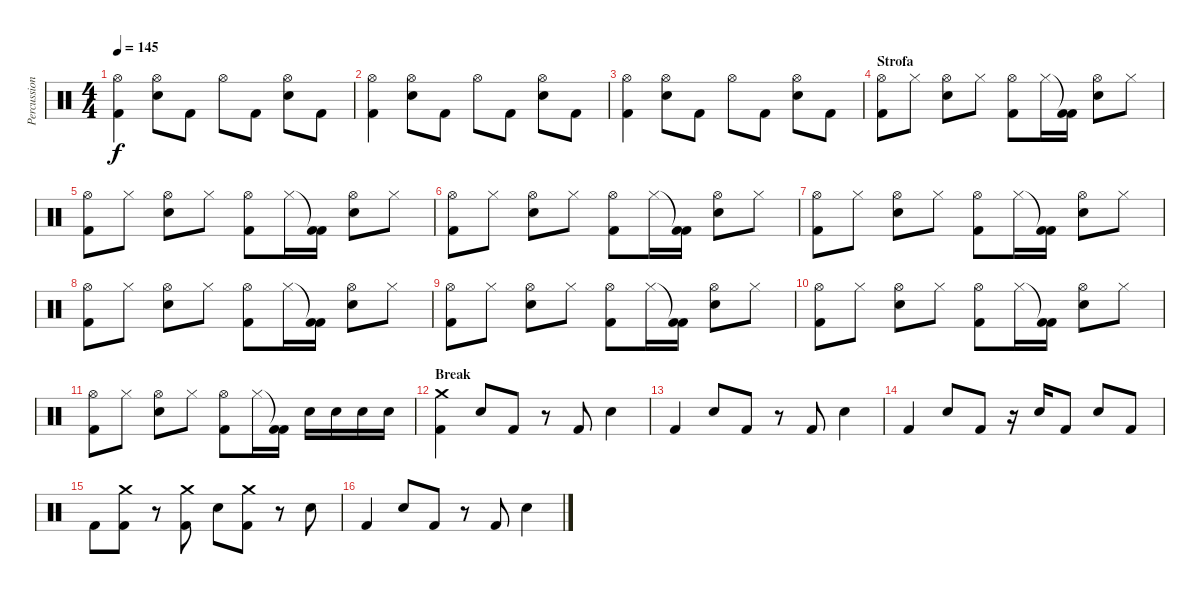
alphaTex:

\track ("Percussioni" "Percussion") {instrument percussion}
\staff {score}
\articulation defaults
\ts (4 4)
\tempo 145
\clef neutral
\ks c
("Hi-Hat (open)" "Kick (hit) 2").4{dy f} ("Hi-Hat (open)" "Electric Snare (hit)").8 "Kick (hit) 2".8 "Hi-Hat (open)".8 "Kick (hit) 2".8 ("Hi-Hat (open)" "Electric Snare (hit)").8 "Kick (hit) 2".8 |
("Hi-Hat (open)" "Kick (hit) 2").4 ("Hi-Hat (open)" "Electric Snare (hit)").8 "Kick (hit) 2".8 "Hi-Hat (open)".8 "Kick (hit) 2".8 ("Hi-Hat (open)" "Electric Snare (hit)").8 "Kick (hit) 2".8 |
("Hi-Hat (open)" "Kick (hit) 2").4 ("Hi-Hat (open)" "Electric Snare (hit)").8 "Kick (hit) 2".8 "Hi-Hat (open)".8 "Kick (hit) 2".8 ("Hi-Hat (open)" "Electric Snare (hit)").8 "Kick (hit) 2".8 |
\section ("" "Strofa")
("Hi-Hat (open)" "Kick (hit) 2").8 "Hi-Hat (closed)".8 ("Hi-Hat (open)" "Electric Snare (hit)").8 "Hi-Hat (closed)".8 ("Hi-Hat (open)" "Kick (hit) 2").8 "Hi-Hat (closed)".16 ("Kick (hit) 2"{t} "Kick (hit) 2").16 ("Hi-Hat (open)" "Electric Snare (hit)").8 "Hi-Hat (closed)".8 |
("Hi-Hat (open)" "Kick (hit) 2").8 "Hi-Hat (closed)".8 ("Hi-Hat (open)" "Electric Snare (hit)").8 "Hi-Hat (closed)".8 ("Hi-Hat (open)" "Kick (hit) 2").8 "Hi-Hat (closed)".16 ("Kick (hit) 2"{t} "Kick (hit) 2").16 ("Hi-Hat (open)" "Electric Snare (hit)").8 "Hi-Hat (closed)".8 |
("Hi-Hat (open)" "Kick (hit) 2").8 "Hi-Hat (closed)".8 ("Hi-Hat (open)" "Electric Snare (hit)").8 "Hi-Hat (closed)".8 ("Hi-Hat (open)" "Kick (hit) 2").8 "Hi-Hat (closed)".16 ("Kick (hit) 2"{t} "Kick (hit) 2").16 ("Hi-Hat (open)" "Electric Snare (hit)").8 "Hi-Hat (closed)".8 |
("Hi-Hat (open)" "Kick (hit) 2").8 "Hi-Hat (closed)".8 ("Hi-Hat (open)" "Electric Snare (hit)").8 "Hi-Hat (closed)".8 ("Hi-Hat (open)" "Kick (hit) 2").8 "Hi-Hat (closed)".16 ("Kick (hit) 2"{t} "Kick (hit) 2").16 ("Hi-Hat (open)" "Electric Snare (hit)").8 "Hi-Hat (closed)".8 |
("Hi-Hat (open)" "Kick (hit) 2").8 "Hi-Hat (closed)".8 ("Hi-Hat (open)" "Electric Snare (hit)").8 "Hi-Hat (closed)".8 ("Hi-Hat (open)" "Kick (hit) 2").8 "Hi-Hat (closed)".16 ("Kick (hit) 2"{t} "Kick (hit) 2").16 ("Hi-Hat (open)" "Electric Snare (hit)").8 "Hi-Hat (closed)".8 |
("Hi-Hat (open)" "Kick (hit) 2").8 "Hi-Hat (closed)".8 ("Hi-Hat (open)" "Electric Snare (hit)").8 "Hi-Hat (closed)".8 ("Hi-Hat (open)" "Kick (hit) 2").8 "Hi-Hat (closed)".16 ("Kick (hit) 2"{t} "Kick (hit) 2").16 ("Hi-Hat (open)" "Electric Snare (hit)").8 "Hi-Hat (closed)".8 |
("Hi-Hat (open)" "Kick (hit) 2").8 "Hi-Hat (closed)".8 ("Hi-Hat (open)" "Electric Snare (hit)").8 "Hi-Hat (closed)".8 ("Hi-Hat (open)" "Kick (hit) 2").8 "Hi-Hat (closed)".16 ("Kick (hit) 2"{t} "Kick (hit) 2").16 ("Hi-Hat (open)" "Electric Snare (hit)").8 "Hi-Hat (closed)".8 |
("Hi-Hat (open)" "Kick (hit) 2").8 "Hi-Hat (closed)".8 ("Hi-Hat (open)" "Electric Snare (hit)").8 "Hi-Hat (closed)".8 ("Hi-Hat (open)" "Kick (hit) 2").8 "Hi-Hat (closed)".16 ("Kick (hit) 2"{t} "Kick (hit) 2").16 "Electric Snare (hit)".16 "Electric Snare (hit)".16 "Electric Snare (hit)".16 "Electric Snare (hit)".16 |
\section ("" "Break")
("Crash medium (hit)" "Kick (hit) 2").4 "Electric Snare (hit)".8 "Kick (hit) 2".8 r.8 "Kick (hit) 2".8 "Electric Snare (hit)".4 |
"Kick (hit) 2".4 "Electric Snare (hit)".8 "Kick (hit) 2".8 r.8 "Kick (hit) 2".8 "Electric Snare (hit)".4 |
"Kick (hit) 2".4 "Electric Snare (hit)".8 "Kick (hit) 2".8 r.16 "Electric Snare (hit)".16 "Kick (hit) 2".8 "Electric Snare (hit)".8 "Kick (hit) 2".8 |
"Kick (hit) 2".8 ("Crash medium (hit)" "Kick (hit) 2").8 r.8 ("Crash medium (hit)" "Kick (hit) 2").8 "Electric Snare (hit)".8 ("Crash medium (hit)" "Kick (hit) 2").8 r.8 "Electric Snare (hit)".8 |
"Kick (hit) 2".4 "Electric Snare (hit)".8 "Kick (hit) 2".8 r.8 "Kick (hit) 2".8 "Electric Snare (hit)".4
